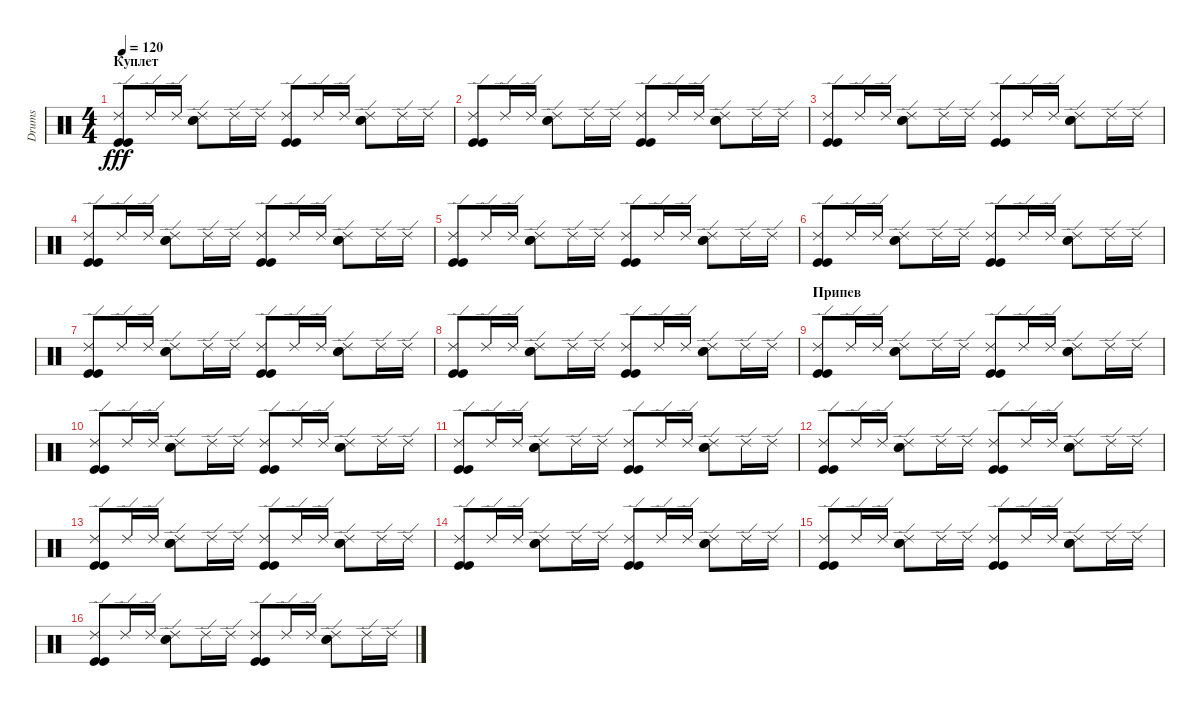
\track ("Drums" "Drums") {instrument percussion}
\staff {score}
\articulation defaults
\ts (4 4)
\section ("" "Куплет")
\tempo 120
\clef neutral
\ks c
("Ride (edge) 2" "Kick (hit)" "Kick (hit)").8{dy fff} "Ride (edge) 2".16 "Ride (edge) 2".16 ("Ride (edge) 2" "Electric Snare (hit)" "Electric Snare (hit)").8 "Ride (edge) 2".16 "Ride (edge) 2".16 ("Ride (edge) 2" "Kick (hit)" "Kick (hit)").8 "Ride (edge) 2".16 "Ride (edge) 2".16 ("Ride (edge) 2" "Electric Snare (hit)" "Electric Snare (hit)").8 "Ride (edge) 2".16 "Ride (edge) 2".16 |
("Ride (edge) 2" "Kick (hit)" "Kick (hit)").8 "Ride (edge) 2".16 "Ride (edge) 2".16 ("Ride (edge) 2" "Electric Snare (hit)" "Electric Snare (hit)").8 "Ride (edge) 2".16 "Ride (edge) 2".16 ("Ride (edge) 2" "Kick (hit)" "Kick (hit)").8 "Ride (edge) 2".16 "Ride (edge) 2".16 ("Ride (edge) 2" "Electric Snare (hit)" "Electric Snare (hit)").8 "Ride (edge) 2".16 "Ride (edge) 2".16 |
("Ride (edge) 2" "Kick (hit)" "Kick (hit)").8 "Ride (edge) 2".16 "Ride (edge) 2".16 ("Ride (edge) 2" "Electric Snare (hit)" "Electric Snare (hit)").8 "Ride (edge) 2".16 "Ride (edge) 2".16 ("Ride (edge) 2" "Kick (hit)" "Kick (hit)").8 "Ride (edge) 2".16 "Ride (edge) 2".16 ("Ride (edge) 2" "Electric Snare (hit)" "Electric Snare (hit)").8 "Ride (edge) 2".16 "Ride (edge) 2".16 |
("Ride (edge) 2" "Kick (hit)" "Kick (hit)").8 "Ride (edge) 2".16 "Ride (edge) 2".16 ("Ride (edge) 2" "Electric Snare (hit)" "Electric Snare (hit)").8 "Ride (edge) 2".16 "Ride (edge) 2".16 ("Ride (edge) 2" "Kick (hit)" "Kick (hit)").8 "Ride (edge) 2".16 "Ride (edge) 2".16 ("Ride (edge) 2" "Electric Snare (hit)" "Electric Snare (hit)").8 "Ride (edge) 2".16 "Ride (edge) 2".16 |
("Ride (edge) 2" "Kick (hit)" "Kick (hit)").8 "Ride (edge) 2".16 "Ride (edge) 2".16 ("Ride (edge) 2" "Electric Snare (hit)" "Electric Snare (hit)").8 "Ride (edge) 2".16 "Ride (edge) 2".16 ("Ride (edge) 2" "Kick (hit)" "Kick (hit)").8 "Ride (edge) 2".16 "Ride (edge) 2".16 ("Ride (edge) 2" "Electric Snare (hit)" "Electric Snare (hit)").8 "Ride (edge) 2".16 "Ride (edge) 2".16 |
("Ride (edge) 2" "Kick (hit)" "Kick (hit)").8 "Ride (edge) 2".16 "Ride (edge) 2".16 ("Ride (edge) 2" "Electric Snare (hit)" "Electric Snare (hit)").8 "Ride (edge) 2".16 "Ride (edge) 2".16 ("Ride (edge) 2" "Kick (hit)" "Kick (hit)").8 "Ride (edge) 2".16 "Ride (edge) 2".16 ("Ride (edge) 2" "Electric Snare (hit)" "Electric Snare (hit)").8 "Ride (edge) 2".16 "Ride (edge) 2".16 |
("Ride (edge) 2" "Kick (hit)" "Kick (hit)").8 "Ride (edge) 2".16 "Ride (edge) 2".16 ("Ride (edge) 2" "Electric Snare (hit)" "Electric Snare (hit)").8 "Ride (edge) 2".16 "Ride (edge) 2".16 ("Ride (edge) 2" "Kick (hit)" "Kick (hit)").8 "Ride (edge) 2".16 "Ride (edge) 2".16 ("Ride (edge) 2" "Electric Snare (hit)" "Electric Snare (hit)").8 "Ride (edge) 2".16 "Ride (edge) 2".16 |
("Ride (edge) 2" "Kick (hit)" "Kick (hit)").8 "Ride (edge) 2".16 "Ride (edge) 2".16 ("Ride (edge) 2" "Electric Snare (hit)" "Electric Snare (hit)").8 "Ride (edge) 2".16 "Ride (edge) 2".16 ("Ride (edge) 2" "Kick (hit)" "Kick (hit)").8 "Ride (edge) 2".16 "Ride (edge) 2".16 ("Ride (edge) 2" "Electric Snare (hit)" "Electric Snare (hit)").8 "Ride (edge) 2".16 "Ride (edge) 2".16 |
\section ("" "Припев")
("Ride (edge) 2" "Kick (hit)" "Kick (hit)").8 "Ride (edge) 2".16 "Ride (edge) 2".16 ("Ride (edge) 2" "Electric Snare (hit)" "Electric Snare (hit)").8 "Ride (edge) 2".16 "Ride (edge) 2".16 ("Ride (edge) 2" "Kick (hit)" "Kick (hit)").8 "Ride (edge) 2".16 "Ride (edge) 2".16 ("Ride (edge) 2" "Electric Snare (hit)" "Electric Snare (hit)").8 "Ride (edge) 2".16 "Ride (edge) 2".16 |
("Ride (edge) 2" "Kick (hit)" "Kick (hit)").8 "Ride (edge) 2".16 "Ride (edge) 2".16 ("Ride (edge) 2" "Electric Snare (hit)" "Electric Snare (hit)").8 "Ride (edge) 2".16 "Ride (edge) 2".16 ("Ride (edge) 2" "Kick (hit)" "Kick (hit)").8 "Ride (edge) 2".16 "Ride (edge) 2".16 ("Ride (edge) 2" "Electric Snare (hit)" "Electric Snare (hit)").8 "Ride (edge) 2".16 "Ride (edge) 2".16 |
("Ride (edge) 2" "Kick (hit)" "Kick (hit)").8 "Ride (edge) 2".16 "Ride (edge) 2".16 ("Ride (edge) 2" "Electric Snare (hit)" "Electric Snare (hit)").8 "Ride (edge) 2".16 "Ride (edge) 2".16 ("Ride (edge) 2" "Kick (hit)" "Kick (hit)").8 "Ride (edge) 2".16 "Ride (edge) 2".16 ("Ride (edge) 2" "Electric Snare (hit)" "Electric Snare (hit)").8 "Ride (edge) 2".16 "Ride (edge) 2".16 |
("Ride (edge) 2" "Kick (hit)" "Kick (hit)").8 "Ride (edge) 2".16 "Ride (edge) 2".16 ("Ride (edge) 2" "Electric Snare (hit)" "Electric Snare (hit)").8 "Ride (edge) 2".16 "Ride (edge) 2".16 ("Ride (edge) 2" "Kick (hit)" "Kick (hit)").8 "Ride (edge) 2".16 "Ride (edge) 2".16 ("Ride (edge) 2" "Electric Snare (hit)" "Electric Snare (hit)").8 "Ride (edge) 2".16 "Ride (edge) 2".16 |
("Ride (edge) 2" "Kick (hit)" "Kick (hit)").8 "Ride (edge) 2".16 "Ride (edge) 2".16 ("Ride (edge) 2" "Electric Snare (hit)" "Electric Snare (hit)").8 "Ride (edge) 2".16 "Ride (edge) 2".16 ("Ride (edge) 2" "Kick (hit)" "Kick (hit)").8 "Ride (edge) 2".16 "Ride (edge) 2".16 ("Ride (edge) 2" "Electric Snare (hit)" "Electric Snare (hit)").8 "Ride (edge) 2".16 "Ride (edge) 2".16 |
("Ride (edge) 2" "Kick (hit)" "Kick (hit)").8 "Ride (edge) 2".16 "Ride (edge) 2".16 ("Ride (edge) 2" "Electric Snare (hit)" "Electric Snare (hit)").8 "Ride (edge) 2".16 "Ride (edge) 2".16 ("Ride (edge) 2" "Kick (hit)" "Kick (hit)").8 "Ride (edge) 2".16 "Ride (edge) 2".16 ("Ride (edge) 2" "Electric Snare (hit)" "Electric Snare (hit)").8 "Ride (edge) 2".16 "Ride (edge) 2".16 |
("Ride (edge) 2" "Kick (hit)" "Kick (hit)").8 "Ride (edge) 2".16 "Ride (edge) 2".16 ("Ride (edge) 2" "Electric Snare (hit)" "Electric Snare (hit)").8 "Ride (edge) 2".16 "Ride (edge) 2".16 ("Ride (edge) 2" "Kick (hit)" "Kick (hit)").8 "Ride (edge) 2".16 "Ride (edge) 2".16 ("Ride (edge) 2" "Electric Snare (hit)" "Electric Snare (hit)").8 "Ride (edge) 2".16 "Ride (edge) 2".16 |
("Ride (edge) 2" "Kick (hit)" "Kick (hit)").8 "Ride (edge) 2".16 "Ride (edge) 2".16 ("Ride (edge) 2" "Electric Snare (hit)" "Electric Snare (hit)").8 "Ride (edge) 2".16 "Ride (edge) 2".16 ("Ride (edge) 2" "Kick (hit)" "Kick (hit)").8 "Ride (edge) 2".16 "Ride (edge) 2".16 ("Ride (edge) 2" "Electric Snare (hit)" "Electric Snare (hit)").8 "Ride (edge) 2".16 "Ride (edge) 2".16
